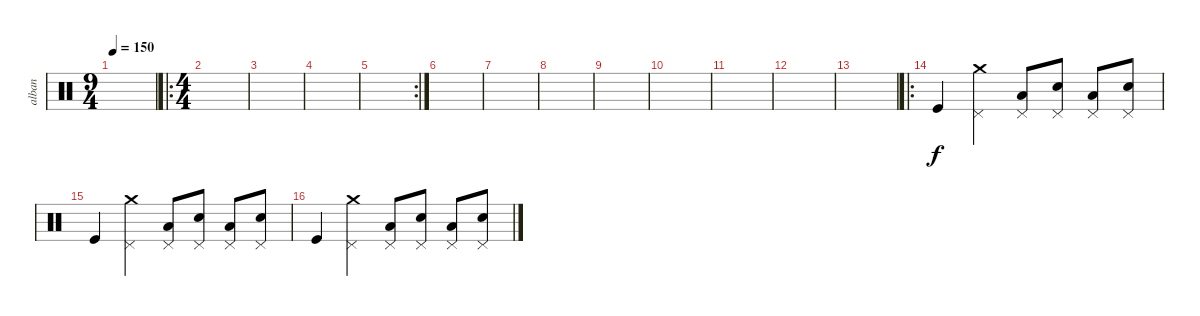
\track ("alban" "alban") {instrument percussion}
\staff {score}
\articulation defaults
\ts (9 4)
\tempo 150
\clef neutral
\ks c
|
\ro
\ts (4 4)
|
|
|
\rc 2
|
|
|
|
|
|
|
|
|
\ro "Kick (hit)".4
("Pedal Hi-Hat (hit)" "Crash medium (hit)").4 ("Pedal Hi-Hat (hit)" "Low Floor Tom (hit)").8 ("Pedal Hi-Hat (hit)" "Snare (hit) 2").8 ("Pedal Hi-Hat (hit)" "Low Floor Tom (hit)").8 ("Pedal Hi-Hat (hit)" "Snare (hit) 2").8 |
"Kick (hit)".4 ("Pedal Hi-Hat (hit)" "Crash medium (hit)").4 ("Pedal Hi-Hat (hit)" "Low Floor Tom (hit)").8 ("Pedal Hi-Hat (hit)" "Snare (hit) 2").8 ("Pedal Hi-Hat (hit)" "Low Floor Tom (hit)").8 ("Pedal Hi-Hat (hit)" "Snare (hit) 2").8 |
"Kick (hit)".4 ("Pedal Hi-Hat (hit)" "Crash medium (hit)").4 ("Pedal Hi-Hat (hit)" "Low Floor Tom (hit)").8 ("Pedal Hi-Hat (hit)" "Snare (hit) 2").8 ("Pedal Hi-Hat (hit)" "Low Floor Tom (hit)").8 ("Pedal Hi-Hat (hit)" "Snare (hit) 2").8
